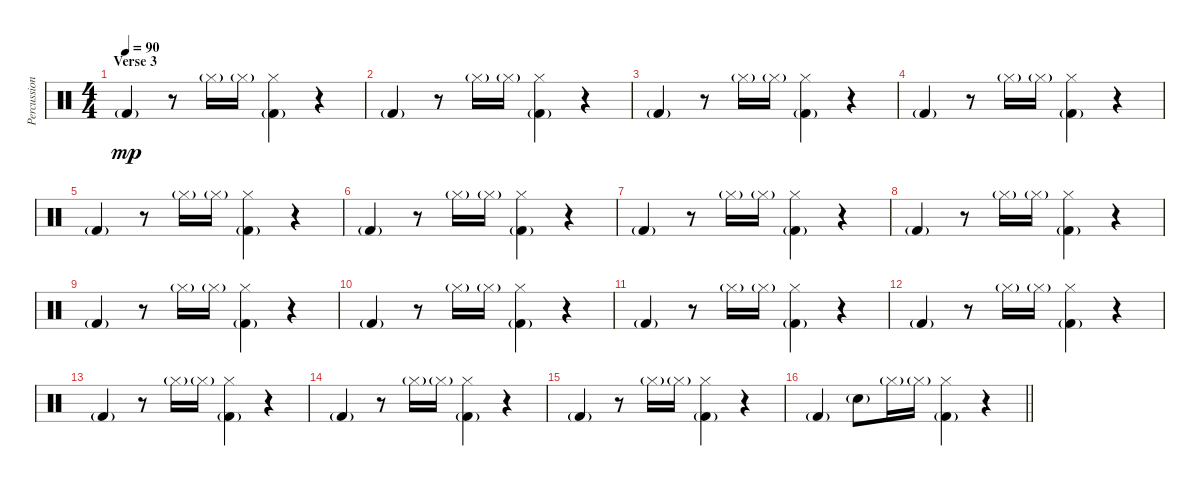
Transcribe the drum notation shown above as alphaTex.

\track ("Percussion" "Percussion") {instrument percussion}
\staff {score}
\articulation defaults
\ts (4 4)
\section ("" "Verse 3")
\tempo 90
\clef neutral
\ks c "Kick (hit) 2"{g}.4{dy mp}
r.8 "Hi-Hat (closed)"{g}.16 "Hi-Hat (closed)"{g}.16 ("Hi-Hat (closed)" "Kick (hit) 2"{g}).4 r.4 |
"Kick (hit) 2"{g}.4 r.8 "Hi-Hat (closed)"{g}.16 "Hi-Hat (closed)"{g}.16 ("Hi-Hat (closed)" "Kick (hit) 2"{g}).4 r.4 |
"Kick (hit) 2"{g}.4 r.8 "Hi-Hat (closed)"{g}.16 "Hi-Hat (closed)"{g}.16 ("Hi-Hat (closed)" "Kick (hit) 2"{g}).4 r.4 |
"Kick (hit) 2"{g}.4 r.8 "Hi-Hat (closed)"{g}.16 "Hi-Hat (closed)"{g}.16 ("Hi-Hat (closed)" "Kick (hit) 2"{g}).4 r.4 |
"Kick (hit) 2"{g}.4 r.8 "Hi-Hat (closed)"{g}.16 "Hi-Hat (closed)"{g}.16 ("Hi-Hat (closed)" "Kick (hit) 2"{g}).4 r.4 |
"Kick (hit) 2"{g}.4 r.8 "Hi-Hat (closed)"{g}.16 "Hi-Hat (closed)"{g}.16 ("Hi-Hat (closed)" "Kick (hit) 2"{g}).4 r.4 |
"Kick (hit) 2"{g}.4 r.8 "Hi-Hat (closed)"{g}.16 "Hi-Hat (closed)"{g}.16 ("Hi-Hat (closed)" "Kick (hit) 2"{g}).4 r.4 |
"Kick (hit) 2"{g}.4 r.8 "Hi-Hat (closed)"{g}.16 "Hi-Hat (closed)"{g}.16 ("Hi-Hat (closed)" "Kick (hit) 2"{g}).4 r.4 |
"Kick (hit) 2"{g}.4 r.8 "Hi-Hat (closed)"{g}.16 "Hi-Hat (closed)"{g}.16 ("Hi-Hat (closed)" "Kick (hit) 2"{g}).4 r.4 |
"Kick (hit) 2"{g}.4 r.8 "Hi-Hat (closed)"{g}.16 "Hi-Hat (closed)"{g}.16 ("Hi-Hat (closed)" "Kick (hit) 2"{g}).4 r.4 |
"Kick (hit) 2"{g}.4 r.8 "Hi-Hat (closed)"{g}.16 "Hi-Hat (closed)"{g}.16 ("Hi-Hat (closed)" "Kick (hit) 2"{g}).4 r.4 |
"Kick (hit) 2"{g}.4 r.8 "Hi-Hat (closed)"{g}.16 "Hi-Hat (closed)"{g}.16 ("Hi-Hat (closed)" "Kick (hit) 2"{g}).4 r.4 |
"Kick (hit) 2"{g}.4 r.8 "Hi-Hat (closed)"{g}.16 "Hi-Hat (closed)"{g}.16 ("Hi-Hat (closed)" "Kick (hit) 2"{g}).4 r.4 |
"Kick (hit) 2"{g}.4 r.8 "Hi-Hat (closed)"{g}.16 "Hi-Hat (closed)"{g}.16 ("Hi-Hat (closed)" "Kick (hit) 2"{g}).4 r.4 |
"Kick (hit) 2"{g}.4 r.8 "Hi-Hat (closed)"{g}.16 "Hi-Hat (closed)"{g}.16 ("Hi-Hat (closed)" "Kick (hit) 2"{g}).4 r.4 |
\barLineRight lightlight "Kick (hit) 2"{g}.4 "Snare (hit) 2"{g}.8 "Hi-Hat (closed)"{g}.16 "Hi-Hat (closed)"{g}.16
("Hi-Hat (closed)" "Kick (hit) 2"{g}).4 r.4
